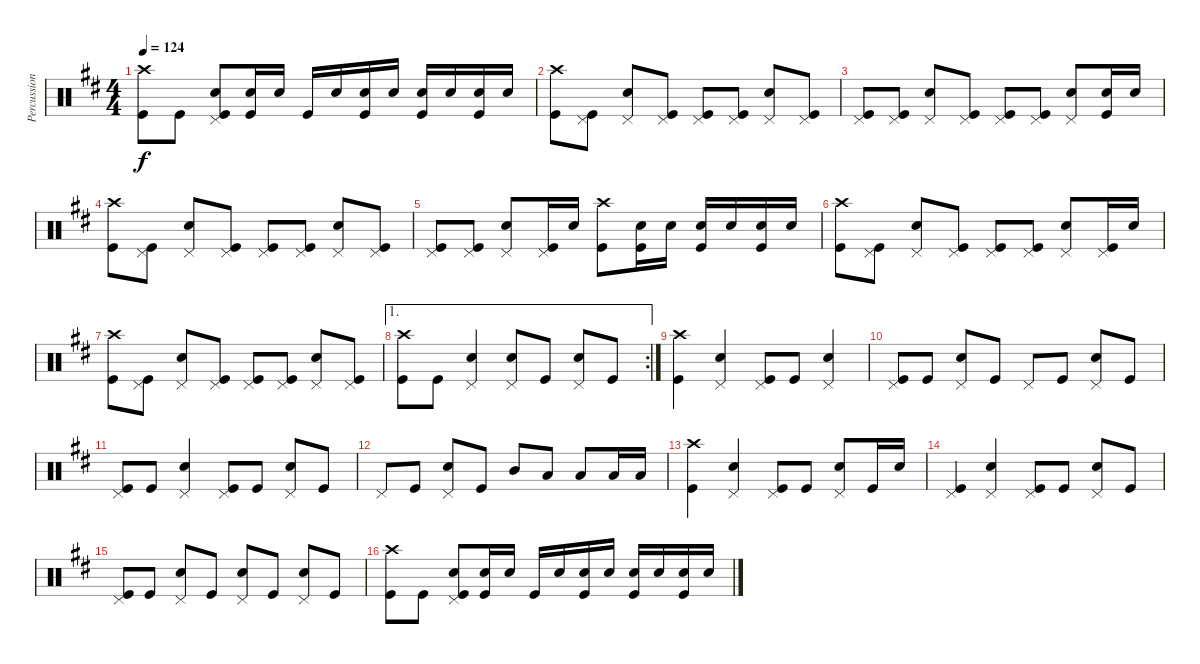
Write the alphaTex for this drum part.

\track ("Percussion" "Percussion") {instrument percussion}
\staff {score}
\articulation defaults
\ts (4 4)
\tempo 124
\clef neutral
\ks d
("Crash high (hit)" "Kick (hit)").8{dy f} "Kick (hit)".8 ("Pedal Hi-Hat (hit)" "Snare (hit) 2" "Kick (hit)").8 ("Snare (hit) 2" "Kick (hit)").16 "Snare (hit) 2".16 "Kick (hit)".16 "Snare (hit) 2".16 ("Snare (hit) 2" "Kick (hit)").16 "Snare (hit) 2".16 ("Snare (hit) 2" "Kick (hit)").16 "Snare (hit) 2".16 ("Snare (hit) 2" "Kick (hit)").16 "Snare (hit) 2".16 |
("Crash high (hit)" "Kick (hit)").8 ("Pedal Hi-Hat (hit)" "Kick (hit)").8 ("Pedal Hi-Hat (hit)" "Snare (hit) 2").8 ("Pedal Hi-Hat (hit)" "Kick (hit)").8 ("Pedal Hi-Hat (hit)" "Kick (hit)").8 ("Pedal Hi-Hat (hit)" "Kick (hit)").8 ("Pedal Hi-Hat (hit)" "Snare (hit) 2").8 ("Pedal Hi-Hat (hit)" "Kick (hit)").8 |
("Pedal Hi-Hat (hit)" "Kick (hit)").8 ("Pedal Hi-Hat (hit)" "Kick (hit)").8 ("Pedal Hi-Hat (hit)" "Snare (hit) 2").8 ("Pedal Hi-Hat (hit)" "Kick (hit)").8 ("Pedal Hi-Hat (hit)" "Kick (hit)").8 ("Pedal Hi-Hat (hit)" "Kick (hit)").8 ("Pedal Hi-Hat (hit)" "Snare (hit) 2").8 ("Snare (hit) 2" "Kick (hit)").16 "Snare (hit) 2".16 |
("Crash high (hit)" "Kick (hit)").8 ("Pedal Hi-Hat (hit)" "Kick (hit)").8 ("Pedal Hi-Hat (hit)" "Snare (hit) 2").8 ("Pedal Hi-Hat (hit)" "Kick (hit)").8 ("Pedal Hi-Hat (hit)" "Kick (hit)").8 ("Pedal Hi-Hat (hit)" "Kick (hit)").8 ("Pedal Hi-Hat (hit)" "Snare (hit) 2").8 ("Pedal Hi-Hat (hit)" "Kick (hit)").8 |
("Pedal Hi-Hat (hit)" "Kick (hit)").8 ("Pedal Hi-Hat (hit)" "Kick (hit)").8 ("Pedal Hi-Hat (hit)" "Snare (hit) 2").8 ("Pedal Hi-Hat (hit)" "Kick (hit)").16 "Snare (hit) 2".16 ("Crash high (hit)" "Kick (hit)").8 ("Snare (hit) 2" "Kick (hit)").16 "Snare (hit) 2".16 ("Snare (hit) 2" "Kick (hit)").16 "Snare (hit) 2".16 ("Snare (hit) 2" "Kick (hit)").16 "Snare (hit) 2".16 |
("Crash high (hit)" "Kick (hit)").8 ("Pedal Hi-Hat (hit)" "Kick (hit)").8 ("Pedal Hi-Hat (hit)" "Snare (hit) 2").8 ("Pedal Hi-Hat (hit)" "Kick (hit)").8 ("Pedal Hi-Hat (hit)" "Kick (hit)").8 ("Pedal Hi-Hat (hit)" "Kick (hit)").8 ("Pedal Hi-Hat (hit)" "Snare (hit) 2").8 ("Pedal Hi-Hat (hit)" "Kick (hit)").16 "Snare (hit) 2".16 |
("Crash high (hit)" "Kick (hit)").8 ("Pedal Hi-Hat (hit)" "Kick (hit)").8 ("Pedal Hi-Hat (hit)" "Snare (hit) 2").8 ("Pedal Hi-Hat (hit)" "Kick (hit)").8 ("Pedal Hi-Hat (hit)" "Kick (hit)").8 ("Pedal Hi-Hat (hit)" "Kick (hit)").8 ("Pedal Hi-Hat (hit)" "Snare (hit) 2").8 ("Pedal Hi-Hat (hit)" "Kick (hit)").8 |
\ae 1
\rc 2
("Crash high (hit)" "Kick (hit)").8 "Kick (hit)".8 ("Pedal Hi-Hat (hit)" "Snare (hit) 2").4 ("Pedal Hi-Hat (hit)" "Snare (hit) 2").8 "Kick (hit)".8 ("Pedal Hi-Hat (hit)" "Snare (hit) 2").8 "Kick (hit)".8 |
("Crash high (hit)" "Kick (hit)").4 ("Pedal Hi-Hat (hit)" "Snare (hit) 2").4 ("Pedal Hi-Hat (hit)" "Kick (hit)").8 "Kick (hit)".8 ("Pedal Hi-Hat (hit)" "Snare (hit) 2").4 |
("Pedal Hi-Hat (hit)" "Kick (hit)").8 "Kick (hit)".8 ("Pedal Hi-Hat (hit)" "Snare (hit) 2").8 "Kick (hit)".8 "Pedal Hi-Hat (hit)".8 "Kick (hit)".8 ("Pedal Hi-Hat (hit)" "Snare (hit) 2").8 "Kick (hit)".8 |
("Pedal Hi-Hat (hit)" "Kick (hit)").8 "Kick (hit)".8 ("Pedal Hi-Hat (hit)" "Snare (hit) 2").4 ("Pedal Hi-Hat (hit)" "Kick (hit)").8 "Kick (hit)".8 ("Pedal Hi-Hat (hit)" "Snare (hit) 2").8 "Kick (hit)".8 |
"Pedal Hi-Hat (hit)".8 "Kick (hit)".8 ("Pedal Hi-Hat (hit)" "Snare (hit) 2").8 "Kick (hit)".8 "Mid Tom (hit)".8 "Low Tom (hit)".8 "Low Tom (hit)".8 "Low Tom (hit)".16 "Low Tom (hit)".16 |
("Crash high (hit)" "Kick (hit)").4 ("Pedal Hi-Hat (hit)" "Snare (hit) 2").4 ("Pedal Hi-Hat (hit)" "Kick (hit)").8 "Kick (hit)".8 ("Pedal Hi-Hat (hit)" "Snare (hit) 2").8 "Kick (hit)".16 "Snare (hit) 2".16 |
("Pedal Hi-Hat (hit)" "Kick (hit)").4 ("Pedal Hi-Hat (hit)" "Snare (hit) 2").4 ("Pedal Hi-Hat (hit)" "Kick (hit)").8 "Kick (hit)".8 ("Pedal Hi-Hat (hit)" "Snare (hit) 2").8 "Kick (hit)".8 |
("Pedal Hi-Hat (hit)" "Kick (hit)").8 "Kick (hit)".8 ("Pedal Hi-Hat (hit)" "Snare (hit) 2").8 "Kick (hit)".8 ("Pedal Hi-Hat (hit)" "Snare (hit) 2").8 "Kick (hit)".8 ("Pedal Hi-Hat (hit)" "Snare (hit) 2").8 "Kick (hit)".8 |
("Crash high (hit)" "Kick (hit)").8 "Kick (hit)".8 ("Pedal Hi-Hat (hit)" "Snare (hit) 2" "Kick (hit)").8 ("Snare (hit) 2" "Kick (hit)").16 "Snare (hit) 2".16 "Kick (hit)".16 "Snare (hit) 2".16 ("Snare (hit) 2" "Kick (hit)").16 "Snare (hit) 2".16 ("Snare (hit) 2" "Kick (hit)").16 "Snare (hit) 2".16 ("Snare (hit) 2" "Kick (hit)").16 "Snare (hit) 2".16
